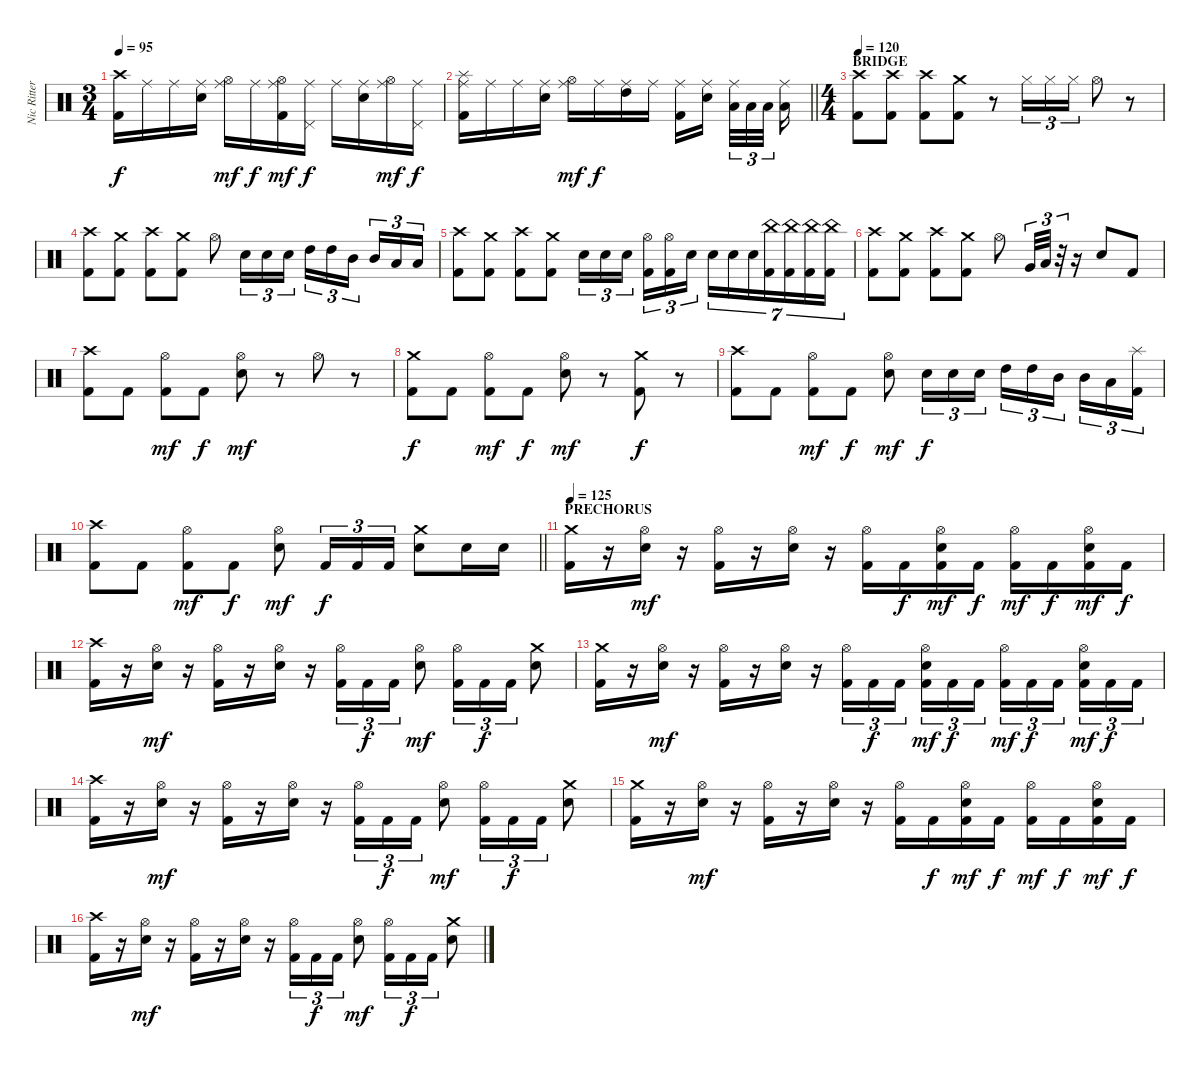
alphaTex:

\track ("Nic Ritter" "Nic Ritter") {instrument percussion}
\staff {score}
\articulation defaults
\ts (3 4)
\tempo 95
\clef neutral
\ks c
("Crash high (hit)" "Kick (hit) 2").16{dy f} "Ride (middle)".16 "Ride (middle)".16 ("Ride (middle)" "Electric Snare (hit)").16 ("Hi-Hat (open)" "Ride (middle)").16{dy mf} "Ride (middle)".16{dy f} ("Hi-Hat (open)" "Ride (middle)" "Kick (hit) 2").16{dy mf} ("Pedal Hi-Hat (hit)" "Ride (middle)").16{dy f} "Ride (middle)".16 ("Ride (middle)" "Electric Snare (hit)").16 ("Hi-Hat (open)" "Ride (middle)").16{dy mf} ("Pedal Hi-Hat (hit)" "Ride (middle)").16{dy f} |
\barLineRight lightlight
("Splash (hit)" "Ride (middle)" "Kick (hit) 2").16 "Ride (middle)".16 "Ride (middle)".16 ("Ride (middle)" "Electric Snare (hit)").16 ("Hi-Hat (open)" "Ride (middle)").16{dy mf} "Ride (middle)".16{dy f} ("High Tom (hit)" "Ride (middle)").16 "Ride (middle)".16 ("Ride (middle)" "Kick (hit) 2").16 ("Ride (middle)" "Electric Snare (hit)").16{beam splitsecondary} ("Low Tom (hit)" "Ride (middle)").32{tu (3 2)} "Low Tom (hit)".32{tu (3 2)} "Low Tom (hit)".32{tu (3 2) beam splitsecondary} ("Low Tom (hit)" "Ride (middle)").16 |
\ts (4 4)
\section ("" "BRIDGE")
\tempo 120
("Crash high (hit)" "Kick (hit) 2").8 ("Crash high (hit)" "Kick (hit) 2").8 ("Crash high (hit)" "Kick (hit) 2").8 ("Crash medium (hit)" "Kick (hit) 2").8 r.8 "Hi-Hat (closed)".16{tu (3 2)} "Hi-Hat (closed)".16{tu (3 2)} "Hi-Hat (closed)".16{tu (3 2)} "Hi-Hat (open)".8 r.8 |
("Crash high (hit)" "Kick (hit) 2").8 ("Crash medium (hit)" "Kick (hit) 2").8 ("Crash high (hit)" "Kick (hit) 2").8 ("Crash medium (hit)" "Kick (hit) 2").8 "Hi-Hat (open)".8 "Electric Snare (hit)".16{tu (3 2)} "Electric Snare (hit)".16{tu (3 2)} "Electric Snare (hit)".16{tu (3 2)} "High Tom (hit)".16{tu (3 2)} "High Tom (hit)".16{tu (3 2)} "Mid Tom (hit)".16{tu (3 2) beam splitsecondary} "Mid Tom (hit)".16{tu (3 2)} "Low Tom (hit)".16{tu (3 2)} "Low Tom (hit)".16{tu (3 2)} |
("Crash high (hit)" "Kick (hit) 2").8 ("Crash medium (hit)" "Kick (hit) 2").8 ("Crash high (hit)" "Kick (hit) 2").8 ("Crash medium (hit)" "Kick (hit) 2").8 "Electric Snare (hit)".16{tu (3 2)} "Electric Snare (hit)".16{tu (3 2)} "Electric Snare (hit)".16{tu (3 2) beam splitsecondary} ("Hi-Hat (open)" "Kick (hit) 2").16{tu (3 2)} ("Hi-Hat (open)" "Kick (hit) 2").16{tu (3 2)} "Electric Snare (hit)".16{tu (3 2)} "Electric Snare (hit)".16{tu (7 4)} "Electric Snare (hit)".16{tu (7 4)} "Electric Snare (hit)".16{tu (7 4)} ("China (hit)" "Kick (hit) 2").16{tu (7 4)} ("China (hit)" "Kick (hit) 2").16{tu (7 4)} ("China (hit)" "Kick (hit) 2").16{tu (7 4)} ("China (hit)" "Kick (hit) 2").16{tu (7 4)} |
("Crash high (hit)" "Kick (hit) 2").8 ("Crash medium (hit)" "Kick (hit) 2").8 ("Crash high (hit)" "Kick (hit) 2").8 ("Crash medium (hit)" "Kick (hit) 2").8 "Hi-Hat (open)".8 "Very Low Tom (hit)".32{tu (3 2)} "Low Tom (hit)".32{tu (3 2)} r.32{tu (3 2)} r.16 "Electric Snare (hit)".8 "Kick (hit) 2".8 |
("Crash high (hit)" "Kick (hit) 2").8 "Kick (hit) 2".8 ("Hi-Hat (open)" "Kick (hit) 2").8{dy mf} "Kick (hit) 2".8{dy f} ("Hi-Hat (open)" "Electric Snare (hit)").8{dy mf} r.8 "Hi-Hat (open)".8 r.8 |
("Crash medium (hit)" "Kick (hit) 2").8{dy f} "Kick (hit) 2".8 ("Hi-Hat (open)" "Kick (hit) 2").8{dy mf} "Kick (hit) 2".8{dy f} ("Hi-Hat (open)" "Electric Snare (hit)").8{dy mf} r.8 ("Crash medium (hit)" "Kick (hit) 2").8{dy f} r.8 |
("Crash high (hit)" "Kick (hit) 2").8 "Kick (hit) 2".8 ("Hi-Hat (open)" "Kick (hit) 2").8{dy mf} "Kick (hit) 2".8{dy f} ("Hi-Hat (open)" "Electric Snare (hit)").8{dy mf} "Electric Snare (hit)".16{tu (3 2) dy f} "Electric Snare (hit)".16{tu (3 2)} "Electric Snare (hit)".16{tu (3 2)} "High Tom (hit)".16{tu (3 2)} "High Tom (hit)".16{tu (3 2)} "Mid Tom (hit)".16{tu (3 2) beam splitsecondary} "Mid Tom (hit)".16{tu (3 2)} "Low Tom (hit)".16{tu (3 2)} ("Splash (hit)" "Kick (hit) 2").16{tu (3 2)} |
\barLineRight lightlight
("Crash high (hit)" "Kick (hit) 2").8 "Kick (hit) 2".8 ("Hi-Hat (open)" "Kick (hit) 2").8{dy mf} "Kick (hit) 2".8{dy f} ("Hi-Hat (open)" "Electric Snare (hit)").8{dy mf} "Kick (hit) 2".16{tu (3 2) dy f} "Kick (hit) 2".16{tu (3 2)} "Kick (hit) 2".16{tu (3 2)} ("Crash medium (hit)" "Electric Snare (hit)").8 "Electric Snare (hit)".16 "Electric Snare (hit)".16 |
\section ("" "PRECHORUS")
\tempo 125
("Crash medium (hit)" "Kick (hit) 2").16 r.16 ("Hi-Hat (open)" "Electric Snare (hit)").16{dy mf} r.16 ("Hi-Hat (open)" "Kick (hit) 2").16 r.16 ("Hi-Hat (open)" "Electric Snare (hit)").16 r.16 ("Hi-Hat (open)" "Kick (hit) 2").16 "Kick (hit) 2".16{dy f} ("Hi-Hat (open)" "Electric Snare (hit)" "Kick (hit) 2").16{dy mf} "Kick (hit) 2".16{dy f} ("Hi-Hat (open)" "Kick (hit) 2").16{dy mf} "Kick (hit) 2".16{dy f} ("Hi-Hat (open)" "Electric Snare (hit)" "Kick (hit) 2").16{dy mf} "Kick (hit) 2".16{dy f} |
("Crash high (hit)" "Kick (hit) 2").16 r.16 ("Hi-Hat (open)" "Electric Snare (hit)").16{dy mf} r.16 ("Hi-Hat (open)" "Kick (hit) 2").16 r.16 ("Hi-Hat (open)" "Electric Snare (hit)").16 r.16 ("Hi-Hat (open)" "Kick (hit) 2").16{tu (3 2)} "Kick (hit) 2".16{tu (3 2) dy f} "Kick (hit) 2".16{tu (3 2)} ("Hi-Hat (open)" "Electric Snare (hit)").8{dy mf} ("Hi-Hat (open)" "Kick (hit) 2").16{tu (3 2)} "Kick (hit) 2".16{tu (3 2) dy f} "Kick (hit) 2".16{tu (3 2)} ("Crash medium (hit)" "Electric Snare (hit)").8 |
("Crash medium (hit)" "Kick (hit) 2").16 r.16 ("Hi-Hat (open)" "Electric Snare (hit)").16{dy mf} r.16 ("Hi-Hat (open)" "Kick (hit) 2").16 r.16 ("Hi-Hat (open)" "Electric Snare (hit)").16 r.16 ("Hi-Hat (open)" "Kick (hit) 2").16{tu (3 2)} "Kick (hit) 2".16{tu (3 2) dy f} "Kick (hit) 2".16{tu (3 2) beam splitsecondary} ("Hi-Hat (open)" "Electric Snare (hit)" "Kick (hit) 2").16{tu (3 2) dy mf} "Kick (hit) 2".16{tu (3 2) dy f} "Kick (hit) 2".16{tu (3 2)} ("Hi-Hat (open)" "Kick (hit) 2").16{tu (3 2) dy mf} "Kick (hit) 2".16{tu (3 2) dy f} "Kick (hit) 2".16{tu (3 2) beam splitsecondary} ("Hi-Hat (open)" "Electric Snare (hit)" "Kick (hit) 2").16{tu (3 2) dy mf} "Kick (hit) 2".16{tu (3 2) dy f} "Kick (hit) 2".16{tu (3 2)} |
("Crash high (hit)" "Kick (hit) 2").16 r.16 ("Hi-Hat (open)" "Electric Snare (hit)").16{dy mf} r.16 ("Hi-Hat (open)" "Kick (hit) 2").16 r.16 ("Hi-Hat (open)" "Electric Snare (hit)").16 r.16 ("Hi-Hat (open)" "Kick (hit) 2").16{tu (3 2)} "Kick (hit) 2".16{tu (3 2) dy f} "Kick (hit) 2".16{tu (3 2)} ("Hi-Hat (open)" "Electric Snare (hit)").8{dy mf} ("Hi-Hat (open)" "Kick (hit) 2").16{tu (3 2)} "Kick (hit) 2".16{tu (3 2) dy f} "Kick (hit) 2".16{tu (3 2)} ("Crash medium (hit)" "Electric Snare (hit)").8 |
("Crash medium (hit)" "Kick (hit) 2").16 r.16 ("Hi-Hat (open)" "Electric Snare (hit)").16{dy mf} r.16 ("Hi-Hat (open)" "Kick (hit) 2").16 r.16 ("Hi-Hat (open)" "Electric Snare (hit)").16 r.16 ("Hi-Hat (open)" "Kick (hit) 2").16 "Kick (hit) 2".16{dy f} ("Hi-Hat (open)" "Electric Snare (hit)" "Kick (hit) 2").16{dy mf} "Kick (hit) 2".16{dy f} ("Hi-Hat (open)" "Kick (hit) 2").16{dy mf} "Kick (hit) 2".16{dy f} ("Hi-Hat (open)" "Electric Snare (hit)" "Kick (hit) 2").16{dy mf} "Kick (hit) 2".16{dy f} |
("Crash high (hit)" "Kick (hit) 2").16 r.16 ("Hi-Hat (open)" "Electric Snare (hit)").16{dy mf} r.16 ("Hi-Hat (open)" "Kick (hit) 2").16 r.16 ("Hi-Hat (open)" "Electric Snare (hit)").16 r.16 ("Hi-Hat (open)" "Kick (hit) 2").16{tu (3 2)} "Kick (hit) 2".16{tu (3 2) dy f} "Kick (hit) 2".16{tu (3 2)} ("Hi-Hat (open)" "Electric Snare (hit)").8{dy mf} ("Hi-Hat (open)" "Kick (hit) 2").16{tu (3 2)} "Kick (hit) 2".16{tu (3 2) dy f} "Kick (hit) 2".16{tu (3 2)} ("Crash medium (hit)" "Electric Snare (hit)").8
